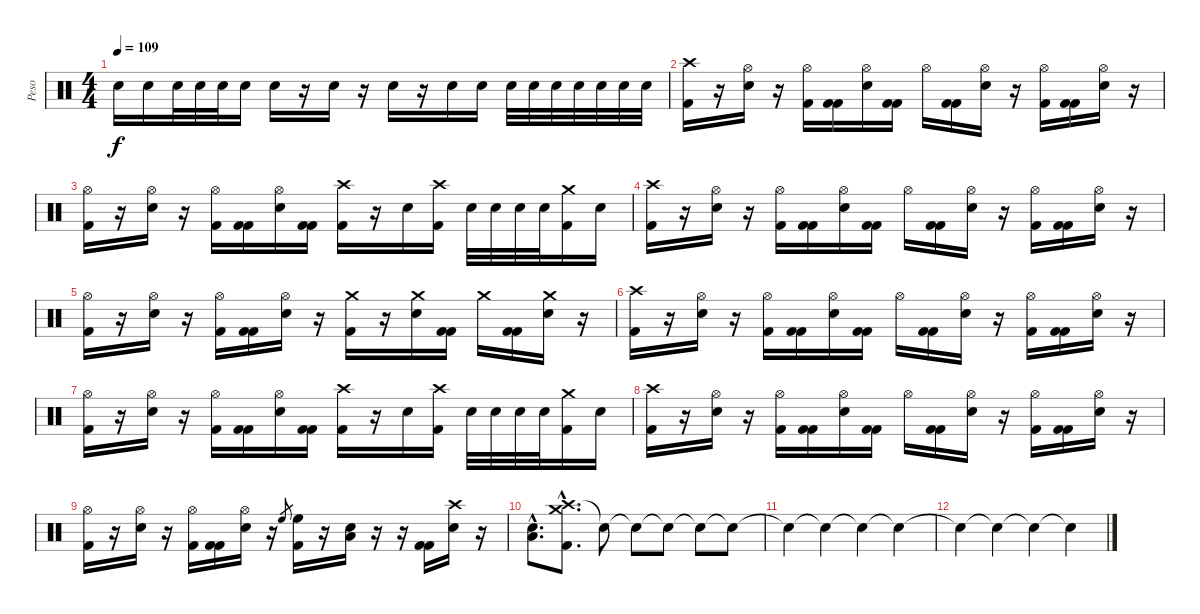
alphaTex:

\track ("Peso" "Peso") {instrument percussion}
\staff {score}
\articulation defaults
\ts (4 4)
\tempo 109
\clef neutral
\ks c "Snare (hit) 2".16{dy f} "Snare (hit) 2".16 "Snare (hit) 2".32 "Snare (hit) 2".32 "Snare (hit) 2".32 "Snare (hit) 2".16{volume 12} "Snare (hit) 2".16
r.16 "Snare (hit) 2".16 r.16 "Snare (hit) 2".16{volume 13} r.16 "Snare (hit) 2".16 "Snare (hit) 2".16 "Snare (hit) 2".32 "Snare (hit) 2".32 "Snare (hit) 2".32 "Snare (hit) 2".32 "Snare (hit) 2".32 "Snare (hit) 2".32 "Snare (hit) 2".32 |
("Crash high (hit)" "Kick (hit) 2").16 r.16 ("Hi-Hat (open)" "Snare (hit) 2").16 r.16 ("Hi-Hat (open)" "Kick (hit) 2").16 ("Kick (hit) 2" "Kick (hit) 2").16 ("Hi-Hat (open)" "Snare (hit) 2").16 ("Kick (hit) 2" "Kick (hit) 2").16 "Hi-Hat (open)".16 ("Kick (hit) 2" "Kick (hit) 2").16 ("Hi-Hat (open)" "Snare (hit) 2").16 r.16 ("Hi-Hat (open)" "Kick (hit) 2").16 ("Kick (hit) 2" "Kick (hit) 2").16 ("Hi-Hat (open)" "Snare (hit) 2").16 r.16 |
("Hi-Hat (open)" "Kick (hit) 2").16 r.16 ("Hi-Hat (open)" "Snare (hit) 2").16 r.16 ("Hi-Hat (open)" "Kick (hit) 2").16 ("Kick (hit) 2" "Kick (hit) 2").16 ("Hi-Hat (open)" "Snare (hit) 2").16 ("Kick (hit) 2" "Kick (hit) 2").16 ("Crash high (hit)" "Kick (hit) 2").16 r.16 "Snare (hit) 2".16 ("Crash high (hit)" "Kick (hit) 2").16 "Snare (hit) 2".32 "Snare (hit) 2".32 "Snare (hit) 2".32 "Snare (hit) 2".32 ("Crash medium (hit)" "Kick (hit) 2").16 "Snare (hit) 2".16 |
("Crash high (hit)" "Kick (hit) 2").16 r.16 ("Hi-Hat (open)" "Snare (hit) 2").16 r.16 ("Hi-Hat (open)" "Kick (hit) 2").16 ("Kick (hit) 2" "Kick (hit) 2").16 ("Hi-Hat (open)" "Snare (hit) 2").16 ("Kick (hit) 2" "Kick (hit) 2").16 "Hi-Hat (open)".16 ("Kick (hit) 2" "Kick (hit) 2").16 ("Hi-Hat (open)" "Snare (hit) 2").16 r.16 ("Hi-Hat (open)" "Kick (hit) 2").16 ("Kick (hit) 2" "Kick (hit) 2").16 ("Hi-Hat (open)" "Snare (hit) 2").16 r.16 |
("Hi-Hat (open)" "Kick (hit) 2").16 r.16 ("Hi-Hat (open)" "Snare (hit) 2").16 r.16 ("Hi-Hat (open)" "Kick (hit) 2").16 ("Kick (hit) 2" "Kick (hit) 2").16 ("Hi-Hat (open)" "Snare (hit) 2").16 r.16 ("Crash medium (hit)" "Kick (hit) 2").16 r.16 ("Crash medium (hit)" "Snare (hit) 2").16 ("Kick (hit) 2" "Kick (hit) 2").16 "Crash medium (hit)".16 ("Kick (hit) 2" "Kick (hit) 2").16 ("Crash medium (hit)" "Snare (hit) 2").16 r.16 |
("Crash high (hit)" "Kick (hit) 2").16 r.16 ("Hi-Hat (open)" "Snare (hit) 2").16 r.16 ("Hi-Hat (open)" "Kick (hit) 2").16 ("Kick (hit) 2" "Kick (hit) 2").16 ("Hi-Hat (open)" "Snare (hit) 2").16 ("Kick (hit) 2" "Kick (hit) 2").16 "Hi-Hat (open)".16 ("Kick (hit) 2" "Kick (hit) 2").16 ("Hi-Hat (open)" "Snare (hit) 2").16 r.16 ("Hi-Hat (open)" "Kick (hit) 2").16 ("Kick (hit) 2" "Kick (hit) 2").16 ("Hi-Hat (open)" "Snare (hit) 2").16 r.16 |
("Hi-Hat (open)" "Kick (hit) 2").16 r.16 ("Hi-Hat (open)" "Snare (hit) 2").16 r.16 ("Hi-Hat (open)" "Kick (hit) 2").16 ("Kick (hit) 2" "Kick (hit) 2").16 ("Hi-Hat (open)" "Snare (hit) 2").16 ("Kick (hit) 2" "Kick (hit) 2").16 ("Crash high (hit)" "Kick (hit) 2").16 r.16 "Snare (hit) 2".16 ("Crash high (hit)" "Kick (hit) 2").16 "Snare (hit) 2".32 "Snare (hit) 2".32 "Snare (hit) 2".32 "Snare (hit) 2".32 ("Crash medium (hit)" "Kick (hit) 2").16 "Snare (hit) 2".16 |
("Crash high (hit)" "Kick (hit) 2").16 r.16 ("Hi-Hat (open)" "Snare (hit) 2").16 r.16 ("Hi-Hat (open)" "Kick (hit) 2").16 ("Kick (hit) 2" "Kick (hit) 2").16 ("Hi-Hat (open)" "Snare (hit) 2").16 ("Kick (hit) 2" "Kick (hit) 2").16 "Hi-Hat (open)".16 ("Kick (hit) 2" "Kick (hit) 2").16 ("Hi-Hat (open)" "Snare (hit) 2").16 r.16 ("Hi-Hat (open)" "Kick (hit) 2").16 ("Kick (hit) 2" "Kick (hit) 2").16 ("Hi-Hat (open)" "Snare (hit) 2").16 r.16 |
("Hi-Hat (open)" "Kick (hit) 2").16 r.16 ("Hi-Hat (open)" "Snare (hit) 2").16 r.16 ("Hi-Hat (open)" "Kick (hit) 2").16 ("Kick (hit) 2" "Kick (hit) 2").16 ("Hi-Hat (open)" "Snare (hit) 2").16 r.16 "High Floor Tom (hit)".8{gr} ("High Floor Tom (hit)" "Kick (hit) 2").16 r.16 ("Low Floor Tom (hit)" "Snare (hit) 2").16 r.16 r.16 ("Kick (hit) 2" "Kick (hit) 2").16 ("Crash high (hit)" "Snare (hit) 2").16 r.16 |
("Snare (hit) 2"{hac} "Low Floor Tom (hit)"{hac}).8{d} ("Crash high (hit)"{hac} "Crash medium (hit)"{hac} "Kick (hit) 2"{hac}).8{d} "Snare (hit)"{t}.8 "Snare (hit)"{t}.8 "Snare (hit)"{t}.8 "Snare (hit)"{t}.8 "Snare (hit)"{t}.8 |
"Snare (hit)"{t}.4 "Snare (hit)"{t}.4 "Snare (hit)"{t}.4 "Snare (hit)"{t}.4 |
"Snare (hit)"{t}.4 "Snare (hit)"{t}.4 "Snare (hit)"{t}.4 "Snare (hit)"{t}.4
